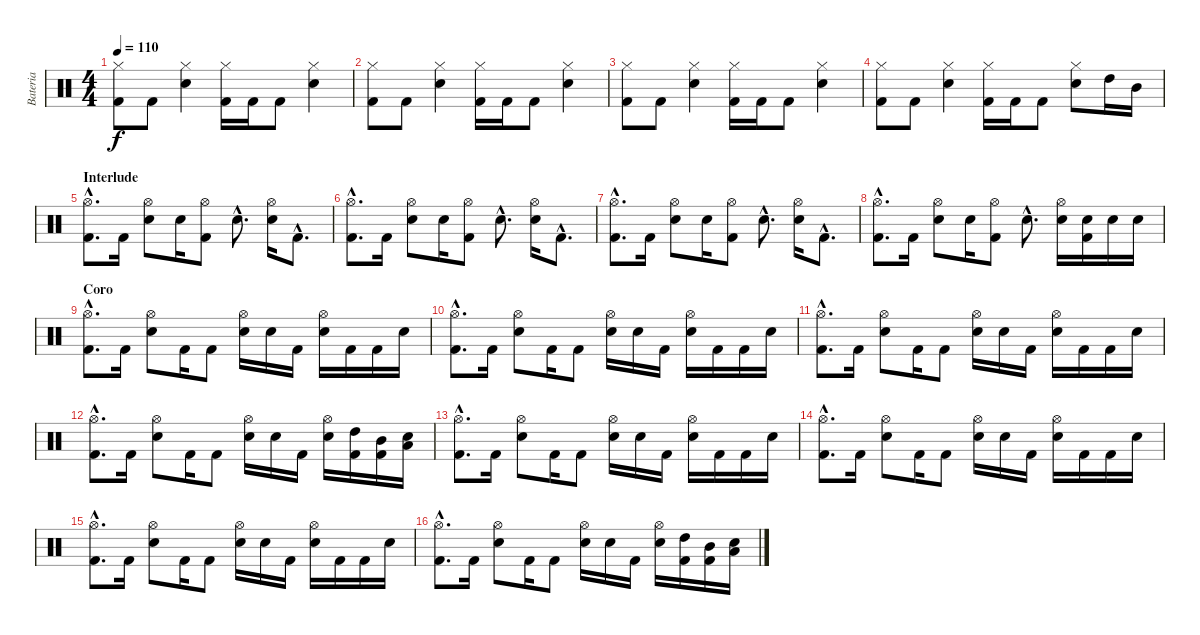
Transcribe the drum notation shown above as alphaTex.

\track ("Bateria" "Bateria") {instrument percussion}
\staff {score}
\articulation defaults
\ts (4 4)
\tempo 110
\clef neutral
\ks c
("Kick (hit) 2" "Hi-Hat (closed)").8{dy f} "Kick (hit) 2".8 ("Electric Snare (hit)" "Hi-Hat (closed)").4 ("Kick (hit) 2" "Hi-Hat (closed)").16 "Kick (hit) 2".16 "Kick (hit) 2".8 ("Electric Snare (hit)" "Hi-Hat (closed)").4 |
("Kick (hit) 2" "Hi-Hat (closed)").8 "Kick (hit) 2".8 ("Electric Snare (hit)" "Hi-Hat (closed)").4 ("Kick (hit) 2" "Hi-Hat (closed)").16 "Kick (hit) 2".16 "Kick (hit) 2".8 ("Electric Snare (hit)" "Hi-Hat (closed)").4 |
("Kick (hit) 2" "Hi-Hat (closed)").8 "Kick (hit) 2".8 ("Electric Snare (hit)" "Hi-Hat (closed)").4 ("Kick (hit) 2" "Hi-Hat (closed)").16 "Kick (hit) 2".16 "Kick (hit) 2".8 ("Electric Snare (hit)" "Hi-Hat (closed)").4 |
("Kick (hit) 2" "Hi-Hat (closed)").8 "Kick (hit) 2".8 ("Electric Snare (hit)" "Hi-Hat (closed)").4 ("Kick (hit) 2" "Hi-Hat (closed)").16 "Kick (hit) 2".16 "Kick (hit) 2".8 ("Electric Snare (hit)" "Hi-Hat (closed)").8 "High Tom (hit)".16 "Mid Tom (hit)".16 |
\section ("" "Interlude")
("Kick (hit) 2"{hac} "Hi-Hat (open)"{hac}).8{d} "Kick (hit) 2".16 ("Electric Snare (hit)" "Hi-Hat (open)").8 "Electric Snare (hit)".16 ("Kick (hit) 2" "Hi-Hat (open)").8 "Electric Snare (hit)"{hac}.8{d} ("Electric Snare (hit)" "Hi-Hat (open)").16 "Kick (hit) 2"{hac}.8{d} |
("Kick (hit) 2"{hac} "Hi-Hat (open)"{hac}).8{d} "Kick (hit) 2".16 ("Electric Snare (hit)" "Hi-Hat (open)").8 "Electric Snare (hit)".16 ("Kick (hit) 2" "Hi-Hat (open)").8 "Electric Snare (hit)"{hac}.8{d} ("Electric Snare (hit)" "Hi-Hat (open)").16 "Kick (hit) 2"{hac}.8{d} |
("Kick (hit) 2"{hac} "Hi-Hat (open)"{hac}).8{d} "Kick (hit) 2".16 ("Electric Snare (hit)" "Hi-Hat (open)").8 "Electric Snare (hit)".16 ("Kick (hit) 2" "Hi-Hat (open)").8 "Electric Snare (hit)"{hac}.8{d} ("Electric Snare (hit)" "Hi-Hat (open)").16 "Kick (hit) 2"{hac}.8{d} |
("Kick (hit) 2"{hac} "Hi-Hat (open)"{hac}).8{d} "Kick (hit) 2".16 ("Electric Snare (hit)" "Hi-Hat (open)").8 "Electric Snare (hit)".16 ("Kick (hit) 2" "Hi-Hat (open)").8 "Electric Snare (hit)"{hac}.8{d} ("Electric Snare (hit)" "Hi-Hat (open)").16 ("Kick (hit) 2" "Electric Snare (hit)").16 "Electric Snare (hit)".16 "Electric Snare (hit)".16 |
\section ("" "Coro")
("Kick (hit) 2"{hac} "Hi-Hat (open)"{hac}).8{d} "Kick (hit) 2".16 ("Electric Snare (hit)" "Hi-Hat (open)").8 "Kick (hit) 2".16 "Kick (hit) 2".8 ("Electric Snare (hit)" "Hi-Hat (open)").16 "Electric Snare (hit)".16 "Kick (hit) 2".16 ("Electric Snare (hit)" "Hi-Hat (open)").16 "Kick (hit) 2".16 "Kick (hit) 2".16 "Electric Snare (hit)".16 |
("Kick (hit) 2"{hac} "Hi-Hat (open)"{hac}).8{d} "Kick (hit) 2".16 ("Electric Snare (hit)" "Hi-Hat (open)").8 "Kick (hit) 2".16 "Kick (hit) 2".8 ("Electric Snare (hit)" "Hi-Hat (open)").16 "Electric Snare (hit)".16 "Kick (hit) 2".16 ("Electric Snare (hit)" "Hi-Hat (open)").16 "Kick (hit) 2".16 "Kick (hit) 2".16 "Electric Snare (hit)".16 |
("Kick (hit) 2"{hac} "Hi-Hat (open)"{hac}).8{d} "Kick (hit) 2".16 ("Electric Snare (hit)" "Hi-Hat (open)").8 "Kick (hit) 2".16 "Kick (hit) 2".8 ("Electric Snare (hit)" "Hi-Hat (open)").16 "Electric Snare (hit)".16 "Kick (hit) 2".16 ("Electric Snare (hit)" "Hi-Hat (open)").16 "Kick (hit) 2".16 "Kick (hit) 2".16 "Electric Snare (hit)".16 |
("Kick (hit) 2"{hac} "Hi-Hat (open)"{hac}).8{d} "Kick (hit) 2".16 ("Electric Snare (hit)" "Hi-Hat (open)").8 "Kick (hit) 2".16 "Kick (hit) 2".8 ("Electric Snare (hit)" "Hi-Hat (open)").16 "Electric Snare (hit)".16 "Kick (hit) 2".16 ("Electric Snare (hit)" "Hi-Hat (open)").16 ("Kick (hit) 2" "High Tom (hit)").16 ("Kick (hit) 2" "Mid Tom (hit)").16 ("Electric Snare (hit)" "Low Tom (hit)").16 |
("Kick (hit) 2"{hac} "Hi-Hat (open)"{hac}).8{d} "Kick (hit) 2".16 ("Electric Snare (hit)" "Hi-Hat (open)").8 "Kick (hit) 2".16 "Kick (hit) 2".8 ("Electric Snare (hit)" "Hi-Hat (open)").16 "Electric Snare (hit)".16 "Kick (hit) 2".16 ("Electric Snare (hit)" "Hi-Hat (open)").16 "Kick (hit) 2".16 "Kick (hit) 2".16 "Electric Snare (hit)".16 |
("Kick (hit) 2"{hac} "Hi-Hat (open)"{hac}).8{d} "Kick (hit) 2".16 ("Electric Snare (hit)" "Hi-Hat (open)").8 "Kick (hit) 2".16 "Kick (hit) 2".8 ("Electric Snare (hit)" "Hi-Hat (open)").16 "Electric Snare (hit)".16 "Kick (hit) 2".16 ("Electric Snare (hit)" "Hi-Hat (open)").16 "Kick (hit) 2".16 "Kick (hit) 2".16 "Electric Snare (hit)".16 |
("Kick (hit) 2"{hac} "Hi-Hat (open)"{hac}).8{d} "Kick (hit) 2".16 ("Electric Snare (hit)" "Hi-Hat (open)").8 "Kick (hit) 2".16 "Kick (hit) 2".8 ("Electric Snare (hit)" "Hi-Hat (open)").16 "Electric Snare (hit)".16 "Kick (hit) 2".16 ("Electric Snare (hit)" "Hi-Hat (open)").16 "Kick (hit) 2".16 "Kick (hit) 2".16 "Electric Snare (hit)".16 |
("Kick (hit) 2"{hac} "Hi-Hat (open)"{hac}).8{d} "Kick (hit) 2".16 ("Electric Snare (hit)" "Hi-Hat (open)").8 "Kick (hit) 2".16 "Kick (hit) 2".8 ("Electric Snare (hit)" "Hi-Hat (open)").16 "Electric Snare (hit)".16 "Kick (hit) 2".16 ("Electric Snare (hit)" "Hi-Hat (open)").16 ("Kick (hit) 2" "High Tom (hit)").16 ("Kick (hit) 2" "Mid Tom (hit)").16 ("Electric Snare (hit)" "Low Tom (hit)").16
